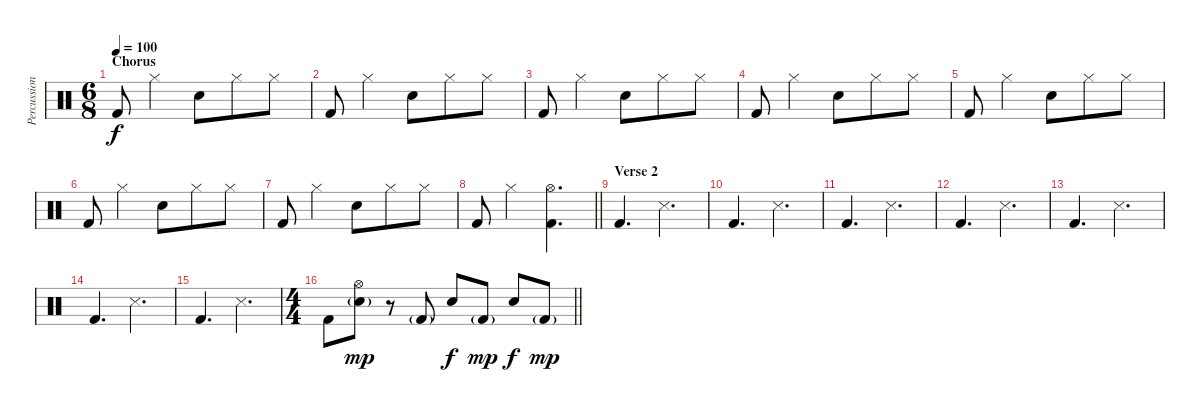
\track ("Percussion" "Percussion") {instrument percussion}
\staff {score}
\articulation defaults
\ts (6 8)
\section ("" "Chorus")
\tempo 100
\clef neutral
\ks c "Kick (hit) 2".8{dy f} "Hi-Hat (closed)".4 "Snare (hit) 2".8 "Hi-Hat (closed)".8 "Hi-Hat (closed)".8
|
"Kick (hit) 2".8 "Hi-Hat (closed)".4 "Snare (hit) 2".8 "Hi-Hat (closed)".8 "Hi-Hat (closed)".8 |
"Kick (hit) 2".8 "Hi-Hat (closed)".4 "Snare (hit) 2".8 "Hi-Hat (closed)".8 "Hi-Hat (closed)".8 |
"Kick (hit) 2".8 "Hi-Hat (closed)".4 "Snare (hit) 2".8 "Hi-Hat (closed)".8 "Hi-Hat (closed)".8 |
"Kick (hit) 2".8 "Hi-Hat (closed)".4 "Snare (hit) 2".8 "Hi-Hat (closed)".8 "Hi-Hat (closed)".8 |
"Kick (hit) 2".8 "Hi-Hat (closed)".4 "Snare (hit) 2".8 "Hi-Hat (closed)".8 "Hi-Hat (closed)".8 |
"Kick (hit) 2".8 "Hi-Hat (closed)".4 "Snare (hit) 2".8 "Hi-Hat (closed)".8 "Hi-Hat (closed)".8 |
\barLineRight lightlight "Kick (hit) 2".8 "Hi-Hat (closed)".4
("Hi-Hat (open)" "Kick (hit) 2").4{d} |
\section ("" "Verse 2")
"Kick (hit) 2".4{d} "Snare (side stick) 3".4{d} |
"Kick (hit) 2".4{d} "Snare (side stick) 3".4{d} |
"Kick (hit) 2".4{d} "Snare (side stick) 3".4{d} |
"Kick (hit) 2".4{d} "Snare (side stick) 3".4{d} |
"Kick (hit) 2".4{d} "Snare (side stick) 3".4{d} |
"Kick (hit) 2".4{d} "Snare (side stick) 3".4{d} |
"Kick (hit) 2".4{d} "Snare (side stick) 3".4{d} |
\ts (4 4)
\barLineRight lightlight "Kick (hit) 2".8
("Hi-Hat (open)" "Snare (hit) 2"{g}).8{dy mp} r.8 "Kick (hit) 2"{g}.8 "Snare (hit) 2".8{dy f} "Kick (hit) 2"{g}.8{dy mp} "Snare (hit) 2".8{dy f} "Kick (hit) 2"{g}.8{dy mp}
